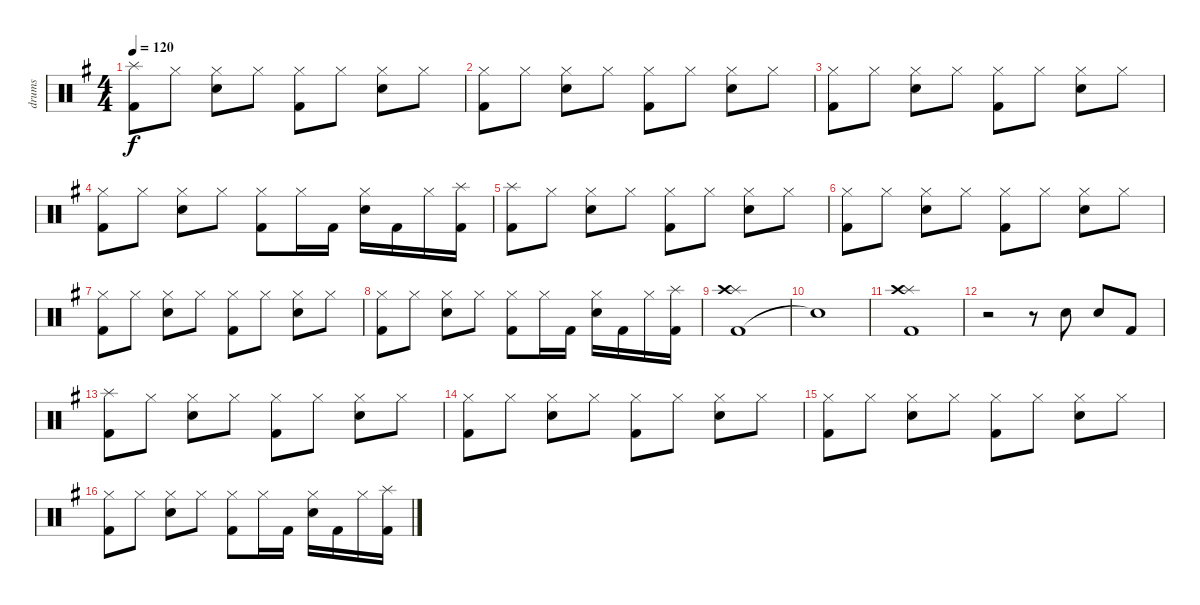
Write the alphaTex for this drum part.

\track ("drums" "drums") {instrument percussion}
\staff {score}
\articulation defaults
\ts (4 4)
\tempo 120
\clef neutral
\ks eminor
("Kick (hit) 2" "Splash (hit)").8{dy f} "Hi-Hat (closed)".8 ("Electric Snare (hit)" "Hi-Hat (closed)").8 "Hi-Hat (closed)".8 ("Kick (hit) 2" "Hi-Hat (closed)").8 "Hi-Hat (closed)".8 ("Electric Snare (hit)" "Hi-Hat (closed)").8 "Hi-Hat (closed)".8 |
("Kick (hit) 2" "Hi-Hat (closed)").8 "Hi-Hat (closed)".8 ("Electric Snare (hit)" "Hi-Hat (closed)").8 "Hi-Hat (closed)".8 ("Kick (hit) 2" "Hi-Hat (closed)").8 "Hi-Hat (closed)".8 ("Electric Snare (hit)" "Hi-Hat (closed)").8 "Hi-Hat (closed)".8 |
("Kick (hit) 2" "Hi-Hat (closed)").8 "Hi-Hat (closed)".8 ("Electric Snare (hit)" "Hi-Hat (closed)").8 "Hi-Hat (closed)".8 ("Kick (hit) 2" "Hi-Hat (closed)").8 "Hi-Hat (closed)".8 ("Electric Snare (hit)" "Hi-Hat (closed)").8 "Hi-Hat (closed)".8 |
("Kick (hit) 2" "Hi-Hat (closed)").8 "Hi-Hat (closed)".8 ("Electric Snare (hit)" "Hi-Hat (closed)").8 "Hi-Hat (closed)".8 ("Kick (hit) 2" "Hi-Hat (closed)").8 "Hi-Hat (closed)".16 "Kick (hit) 2".16 ("Electric Snare (hit)" "Hi-Hat (closed)").16 "Kick (hit) 2".16 "Hi-Hat (closed)".16 ("Kick (hit) 2" "Splash (hit)").16 |
("Kick (hit) 2" "Splash (hit)").8 "Hi-Hat (closed)".8 ("Electric Snare (hit)" "Hi-Hat (closed)").8 "Hi-Hat (closed)".8 ("Kick (hit) 2" "Hi-Hat (closed)").8 "Hi-Hat (closed)".8 ("Electric Snare (hit)" "Hi-Hat (closed)").8 "Hi-Hat (closed)".8 |
("Kick (hit) 2" "Hi-Hat (closed)").8 "Hi-Hat (closed)".8 ("Electric Snare (hit)" "Hi-Hat (closed)").8 "Hi-Hat (closed)".8 ("Kick (hit) 2" "Hi-Hat (closed)").8 "Hi-Hat (closed)".8 ("Electric Snare (hit)" "Hi-Hat (closed)").8 "Hi-Hat (closed)".8 |
("Kick (hit) 2" "Hi-Hat (closed)").8 "Hi-Hat (closed)".8 ("Electric Snare (hit)" "Hi-Hat (closed)").8 "Hi-Hat (closed)".8 ("Kick (hit) 2" "Hi-Hat (closed)").8 "Hi-Hat (closed)".8 ("Electric Snare (hit)" "Hi-Hat (closed)").8 "Hi-Hat (closed)".8 |
("Kick (hit) 2" "Hi-Hat (closed)").8 "Hi-Hat (closed)".8 ("Electric Snare (hit)" "Hi-Hat (closed)").8 "Hi-Hat (closed)".8 ("Kick (hit) 2" "Hi-Hat (closed)").8 "Hi-Hat (closed)".16 "Kick (hit) 2".16 ("Electric Snare (hit)" "Hi-Hat (closed)").16 "Kick (hit) 2".16 "Hi-Hat (closed)".16 ("Kick (hit) 2" "Splash (hit)").16 |
("Kick (hit) 2" "Splash (hit)" "Crash high (hit)").1 |
"Snare (hit)"{t}.1 |
("Kick (hit) 2" "Splash (hit)" "Crash high (hit)").1 |
r.2 r.8 "Electric Snare (hit)".8 "Electric Snare (hit)".8 "Kick (hit) 2".8 |
("Kick (hit) 2" "Splash (hit)").8 "Hi-Hat (closed)".8 ("Electric Snare (hit)" "Hi-Hat (closed)").8 "Hi-Hat (closed)".8 ("Kick (hit) 2" "Hi-Hat (closed)").8 "Hi-Hat (closed)".8 ("Electric Snare (hit)" "Hi-Hat (closed)").8 "Hi-Hat (closed)".8 |
("Kick (hit) 2" "Hi-Hat (closed)").8 "Hi-Hat (closed)".8 ("Electric Snare (hit)" "Hi-Hat (closed)").8 "Hi-Hat (closed)".8 ("Kick (hit) 2" "Hi-Hat (closed)").8 "Hi-Hat (closed)".8 ("Electric Snare (hit)" "Hi-Hat (closed)").8 "Hi-Hat (closed)".8 |
("Kick (hit) 2" "Hi-Hat (closed)").8 "Hi-Hat (closed)".8 ("Electric Snare (hit)" "Hi-Hat (closed)").8 "Hi-Hat (closed)".8 ("Kick (hit) 2" "Hi-Hat (closed)").8 "Hi-Hat (closed)".8 ("Electric Snare (hit)" "Hi-Hat (closed)").8 "Hi-Hat (closed)".8 |
("Kick (hit) 2" "Hi-Hat (closed)").8 "Hi-Hat (closed)".8 ("Electric Snare (hit)" "Hi-Hat (closed)").8 "Hi-Hat (closed)".8 ("Kick (hit) 2" "Hi-Hat (closed)").8 "Hi-Hat (closed)".16 "Kick (hit) 2".16 ("Electric Snare (hit)" "Hi-Hat (closed)").16 "Kick (hit) 2".16 "Hi-Hat (closed)".16 ("Kick (hit) 2" "Splash (hit)").16
